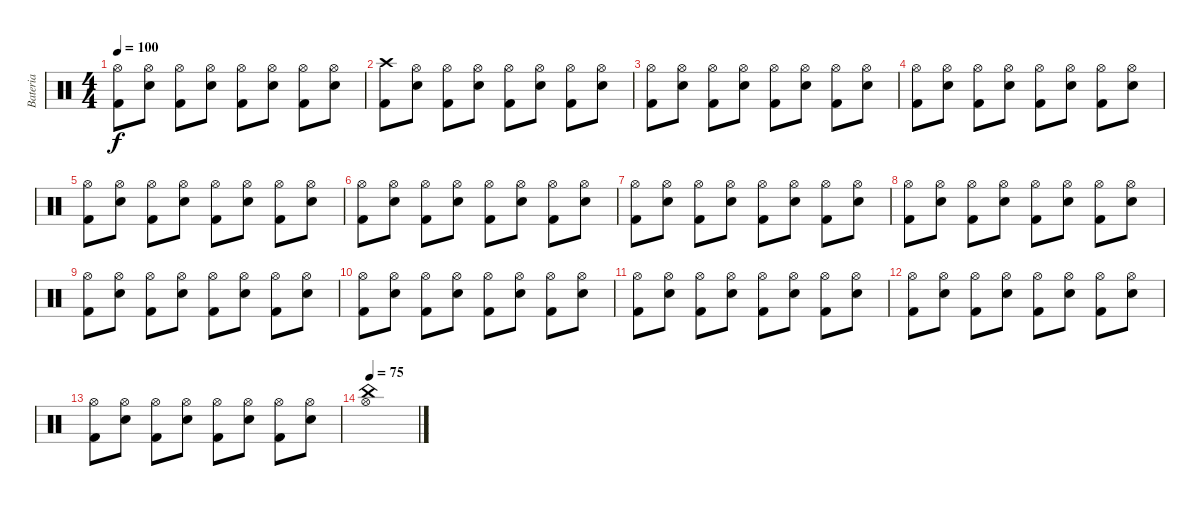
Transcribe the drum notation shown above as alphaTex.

\track ("Bateria" "Bateria") {instrument percussion}
\staff {score}
\articulation defaults
\ts (4 4)
\tempo 100
\clef neutral
\ks c
("Hi-Hat (open)" "Kick (hit) 2").8{dy f} ("Hi-Hat (open)" "Electric Snare (hit)").8 ("Hi-Hat (open)" "Kick (hit) 2").8 ("Hi-Hat (open)" "Electric Snare (hit)").8 ("Hi-Hat (open)" "Kick (hit) 2").8 ("Hi-Hat (open)" "Electric Snare (hit)").8 ("Hi-Hat (open)" "Kick (hit) 2").8 ("Hi-Hat (open)" "Electric Snare (hit)").8 |
("Crash high (hit)" "Kick (hit) 2").8 ("Hi-Hat (open)" "Electric Snare (hit)").8 ("Hi-Hat (open)" "Kick (hit) 2").8 ("Hi-Hat (open)" "Electric Snare (hit)").8 ("Hi-Hat (open)" "Kick (hit) 2").8 ("Hi-Hat (open)" "Electric Snare (hit)").8 ("Hi-Hat (open)" "Kick (hit) 2").8 ("Hi-Hat (open)" "Electric Snare (hit)").8 |
("Hi-Hat (open)" "Kick (hit) 2").8 ("Hi-Hat (open)" "Electric Snare (hit)").8 ("Hi-Hat (open)" "Kick (hit) 2").8 ("Hi-Hat (open)" "Electric Snare (hit)").8 ("Hi-Hat (open)" "Kick (hit) 2").8 ("Hi-Hat (open)" "Electric Snare (hit)").8 ("Hi-Hat (open)" "Kick (hit) 2").8 ("Hi-Hat (open)" "Electric Snare (hit)").8 |
("Hi-Hat (open)" "Kick (hit) 2").8 ("Hi-Hat (open)" "Electric Snare (hit)").8 ("Hi-Hat (open)" "Kick (hit) 2").8 ("Hi-Hat (open)" "Electric Snare (hit)").8 ("Hi-Hat (open)" "Kick (hit) 2").8 ("Hi-Hat (open)" "Electric Snare (hit)").8 ("Hi-Hat (open)" "Kick (hit) 2").8 ("Hi-Hat (open)" "Electric Snare (hit)").8 |
("Hi-Hat (open)" "Kick (hit) 2").8 ("Hi-Hat (open)" "Electric Snare (hit)").8 ("Hi-Hat (open)" "Kick (hit) 2").8 ("Hi-Hat (open)" "Electric Snare (hit)").8 ("Hi-Hat (open)" "Kick (hit) 2").8 ("Hi-Hat (open)" "Electric Snare (hit)").8 ("Hi-Hat (open)" "Kick (hit) 2").8 ("Hi-Hat (open)" "Electric Snare (hit)").8 |
("Hi-Hat (open)" "Kick (hit) 2").8 ("Hi-Hat (open)" "Electric Snare (hit)").8 ("Hi-Hat (open)" "Kick (hit) 2").8 ("Hi-Hat (open)" "Electric Snare (hit)").8 ("Hi-Hat (open)" "Kick (hit) 2").8 ("Hi-Hat (open)" "Electric Snare (hit)").8 ("Hi-Hat (open)" "Kick (hit) 2").8 ("Hi-Hat (open)" "Electric Snare (hit)").8 |
("Hi-Hat (open)" "Kick (hit) 2").8 ("Hi-Hat (open)" "Electric Snare (hit)").8 ("Hi-Hat (open)" "Kick (hit) 2").8 ("Hi-Hat (open)" "Electric Snare (hit)").8 ("Hi-Hat (open)" "Kick (hit) 2").8 ("Hi-Hat (open)" "Electric Snare (hit)").8 ("Hi-Hat (open)" "Kick (hit) 2").8 ("Hi-Hat (open)" "Electric Snare (hit)").8 |
("Hi-Hat (open)" "Kick (hit) 2").8 ("Hi-Hat (open)" "Electric Snare (hit)").8 ("Hi-Hat (open)" "Kick (hit) 2").8 ("Hi-Hat (open)" "Electric Snare (hit)").8 ("Hi-Hat (open)" "Kick (hit) 2").8 ("Hi-Hat (open)" "Electric Snare (hit)").8 ("Hi-Hat (open)" "Kick (hit) 2").8 ("Hi-Hat (open)" "Electric Snare (hit)").8 |
("Hi-Hat (open)" "Kick (hit) 2").8 ("Hi-Hat (open)" "Electric Snare (hit)").8 ("Hi-Hat (open)" "Kick (hit) 2").8 ("Hi-Hat (open)" "Electric Snare (hit)").8 ("Hi-Hat (open)" "Kick (hit) 2").8 ("Hi-Hat (open)" "Electric Snare (hit)").8 ("Hi-Hat (open)" "Kick (hit) 2").8 ("Hi-Hat (open)" "Electric Snare (hit)").8 |
("Hi-Hat (open)" "Kick (hit) 2").8 ("Hi-Hat (open)" "Electric Snare (hit)").8 ("Hi-Hat (open)" "Kick (hit) 2").8 ("Hi-Hat (open)" "Electric Snare (hit)").8 ("Hi-Hat (open)" "Kick (hit) 2").8 ("Hi-Hat (open)" "Electric Snare (hit)").8 ("Hi-Hat (open)" "Kick (hit) 2").8 ("Hi-Hat (open)" "Electric Snare (hit)").8 |
("Hi-Hat (open)" "Kick (hit) 2").8 ("Hi-Hat (open)" "Electric Snare (hit)").8 ("Hi-Hat (open)" "Kick (hit) 2").8 ("Hi-Hat (open)" "Electric Snare (hit)").8 ("Hi-Hat (open)" "Kick (hit) 2").8 ("Hi-Hat (open)" "Electric Snare (hit)").8 ("Hi-Hat (open)" "Kick (hit) 2").8 ("Hi-Hat (open)" "Electric Snare (hit)").8 |
("Hi-Hat (open)" "Kick (hit) 2").8 ("Hi-Hat (open)" "Electric Snare (hit)").8 ("Hi-Hat (open)" "Kick (hit) 2").8 ("Hi-Hat (open)" "Electric Snare (hit)").8 ("Hi-Hat (open)" "Kick (hit) 2").8 ("Hi-Hat (open)" "Electric Snare (hit)").8 ("Hi-Hat (open)" "Kick (hit) 2").8 ("Hi-Hat (open)" "Electric Snare (hit)").8 |
("Hi-Hat (open)" "Kick (hit) 2").8 ("Hi-Hat (open)" "Electric Snare (hit)").8 ("Hi-Hat (open)" "Kick (hit) 2").8 ("Hi-Hat (open)" "Electric Snare (hit)").8 ("Hi-Hat (open)" "Kick (hit) 2").8 ("Hi-Hat (open)" "Electric Snare (hit)").8 ("Hi-Hat (open)" "Kick (hit) 2").8 ("Hi-Hat (open)" "Electric Snare (hit)").8 |
\tempo 75
("China (hit)" "Hi-Hat (open)").1
